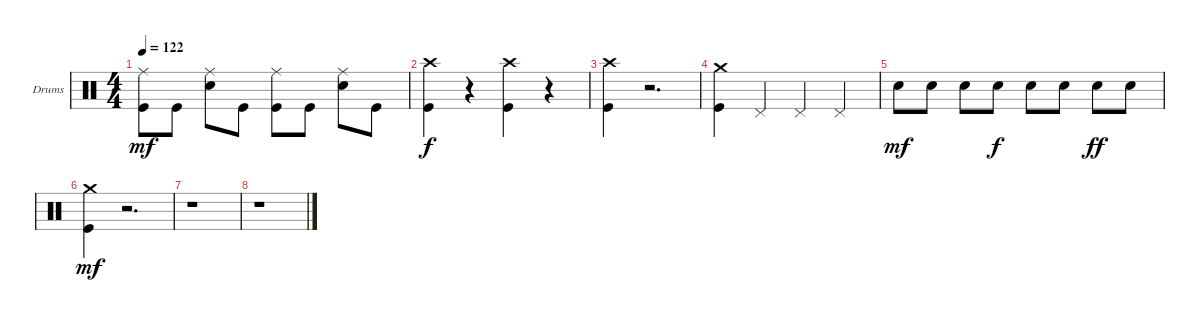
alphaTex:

\defaultSystemsLayout 4
\bracketExtendMode groupsimilarinstruments
\firstSystemTrackNameOrientation horizontal
\otherSystemsTrackNameOrientation horizontal
\track ("Drum" "Drums") {instrument percussion}
\staff {score}
\articulation defaults
\ts (4 4)
\tempo 122
\clef neutral
\ks c
("Kick (hit)" "Ride (middle)").8{dy mf} "Kick (hit)".8 ("Snare (hit) 2" "Ride (middle)").8 "Kick (hit)".8 ("Kick (hit)" "Ride (middle)").8 "Kick (hit)".8 ("Snare (hit) 2" "Ride (middle)").8 "Kick (hit)".8 |
("Kick (hit)" "Crash high (hit)").4{dy f} r.4 ("Crash high (hit)" "Kick (hit)").4 r.4 |
("Kick (hit)" "Crash high (hit)").4 r.2{d} |
("Kick (hit)" "Crash medium (hit)").4 "Pedal Hi-Hat (hit)".4 "Pedal Hi-Hat (hit)".4 "Pedal Hi-Hat (hit)".4 |
"Snare (hit) 2".8{dy mf} "Snare (hit) 2".8 "Snare (hit) 2".8 "Snare (hit) 2".8{dy f} "Snare (hit) 2".8 "Snare (hit) 2".8 "Snare (hit) 2".8{dy ff} "Snare (hit) 2".8 |
("Kick (hit)" "Crash medium (hit)").4{dy mf} r.2{d} |
r.1 |
r.1
